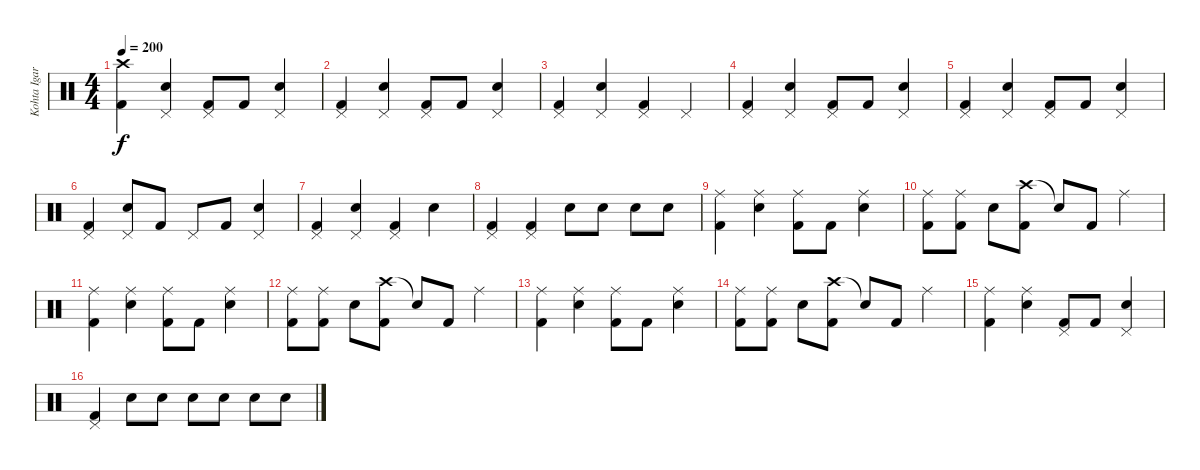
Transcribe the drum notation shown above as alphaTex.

\track ("Kohta Igarashi" "Kohta Igar") {instrument percussion}
\staff {score}
\articulation defaults
\ts (4 4)
\tempo 200
\clef neutral
\ks c
("Crash high (hit)" "Kick (hit) 2").4{dy f} ("Pedal Hi-Hat (hit)" "Electric Snare (hit)").4 ("Pedal Hi-Hat (hit)" "Kick (hit) 2").8 "Kick (hit) 2".8 ("Pedal Hi-Hat (hit)" "Electric Snare (hit)").4 |
("Pedal Hi-Hat (hit)" "Kick (hit) 2").4 ("Pedal Hi-Hat (hit)" "Electric Snare (hit)").4 ("Pedal Hi-Hat (hit)" "Kick (hit) 2").8 "Kick (hit) 2".8 ("Pedal Hi-Hat (hit)" "Electric Snare (hit)").4 |
("Pedal Hi-Hat (hit)" "Kick (hit) 2").4 ("Pedal Hi-Hat (hit)" "Electric Snare (hit)").4 ("Pedal Hi-Hat (hit)" "Kick (hit) 2").4 "Pedal Hi-Hat (hit)".4 |
("Pedal Hi-Hat (hit)" "Kick (hit) 2").4 ("Pedal Hi-Hat (hit)" "Electric Snare (hit)").4 ("Pedal Hi-Hat (hit)" "Kick (hit) 2").8 "Kick (hit) 2".8 ("Pedal Hi-Hat (hit)" "Electric Snare (hit)").4 |
("Pedal Hi-Hat (hit)" "Kick (hit) 2").4 ("Pedal Hi-Hat (hit)" "Electric Snare (hit)").4 ("Pedal Hi-Hat (hit)" "Kick (hit) 2").8 "Kick (hit) 2".8 ("Pedal Hi-Hat (hit)" "Electric Snare (hit)").4 |
("Pedal Hi-Hat (hit)" "Kick (hit) 2").4 ("Pedal Hi-Hat (hit)" "Electric Snare (hit)").8 "Kick (hit) 2".8 "Pedal Hi-Hat (hit)".8 "Kick (hit) 2".8 ("Pedal Hi-Hat (hit)" "Electric Snare (hit)").4 |
("Pedal Hi-Hat (hit)" "Kick (hit) 2").4 ("Pedal Hi-Hat (hit)" "Electric Snare (hit)").4 ("Pedal Hi-Hat (hit)" "Kick (hit) 2").4 "Electric Snare (hit)".4 |
("Pedal Hi-Hat (hit)" "Kick (hit) 2").4 ("Pedal Hi-Hat (hit)" "Kick (hit) 2").4 "Electric Snare (hit)".8 "Electric Snare (hit)".8 "Electric Snare (hit)".8 "Electric Snare (hit)".8 |
("Ride (middle)" "Kick (hit) 2").4 ("Ride (middle)" "Electric Snare (hit)").4 ("Ride (middle)" "Kick (hit) 2").8 "Kick (hit) 2".8 ("Ride (middle)" "Electric Snare (hit)").4 |
("Ride (middle)" "Kick (hit) 2").8 ("Ride (middle)" "Kick (hit) 2").8 "Electric Snare (hit)".8 ("Crash high (hit)" "Kick (hit) 2").8 "Snare (hit)"{t}.8 "Kick (hit) 2".8 "Ride (middle)".4 |
("Ride (middle)" "Kick (hit) 2").4 ("Ride (middle)" "Electric Snare (hit)").4 ("Ride (middle)" "Kick (hit) 2").8 "Kick (hit) 2".8 ("Ride (middle)" "Electric Snare (hit)").4 |
("Ride (middle)" "Kick (hit) 2").8 ("Ride (middle)" "Kick (hit) 2").8 "Electric Snare (hit)".8 ("Crash high (hit)" "Kick (hit) 2").8 "Snare (hit)"{t}.8 "Kick (hit) 2".8 "Ride (middle)".4 |
("Ride (middle)" "Kick (hit) 2").4 ("Ride (middle)" "Electric Snare (hit)").4 ("Ride (middle)" "Kick (hit) 2").8 "Kick (hit) 2".8 ("Ride (middle)" "Electric Snare (hit)").4 |
("Ride (middle)" "Kick (hit) 2").8 ("Ride (middle)" "Kick (hit) 2").8 "Electric Snare (hit)".8 ("Crash high (hit)" "Kick (hit) 2").8 "Snare (hit)"{t}.8 "Kick (hit) 2".8 "Ride (middle)".4 |
("Ride (middle)" "Kick (hit) 2").4 ("Ride (middle)" "Electric Snare (hit)").4 ("Pedal Hi-Hat (hit)" "Kick (hit) 2").8 "Kick (hit) 2".8 ("Pedal Hi-Hat (hit)" "Electric Snare (hit)").4 |
("Pedal Hi-Hat (hit)" "Kick (hit) 2").4 "Electric Snare (hit)".8 "Electric Snare (hit)".8 "Electric Snare (hit)".8 "Electric Snare (hit)".8 "Electric Snare (hit)".8 "Electric Snare (hit)".8
